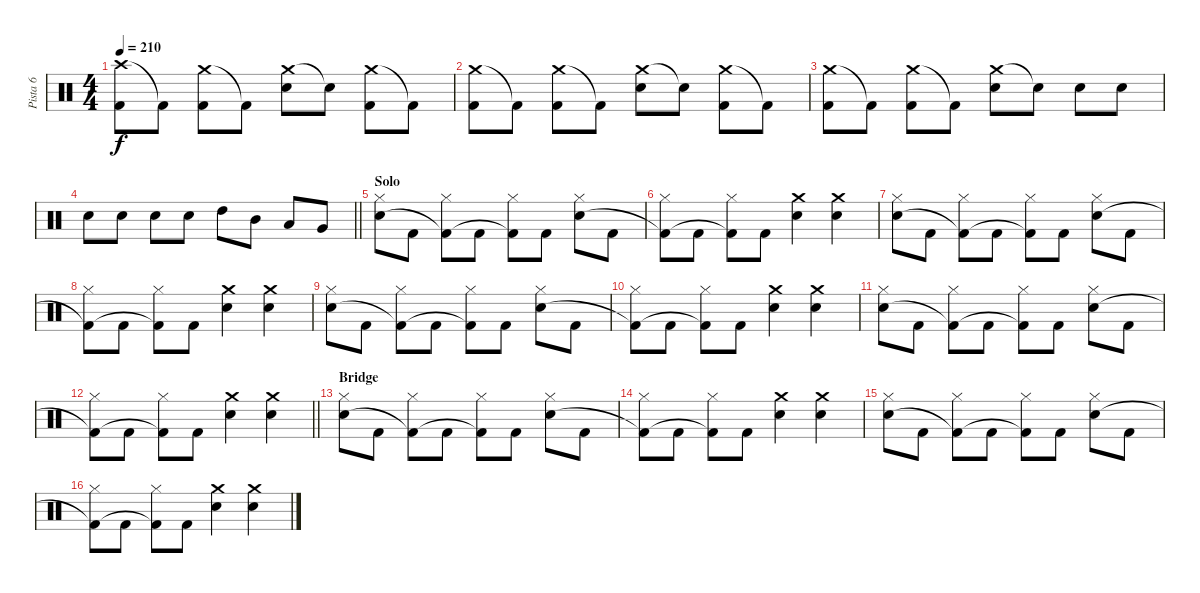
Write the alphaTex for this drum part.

\track ("Pista 6" "Pista 6") {instrument percussion}
\staff {score}
\articulation defaults
\ts (4 4)
\tempo 210
\clef neutral
\ks c
("Crash high (hit)" "Kick (hit) 2").8{dy f} "Kick (hit) 2"{t}.8 ("Crash medium (hit)" "Kick (hit) 2").8 "Kick (hit) 2"{t}.8 ("Crash medium (hit)" "Electric Snare (hit)").8 "Electric Snare (hit)"{t}.8 ("Crash medium (hit)" "Kick (hit) 2").8 "Kick (hit) 2"{t}.8 |
("Crash medium (hit)" "Kick (hit) 2").8 "Kick (hit) 2"{t}.8 ("Crash medium (hit)" "Kick (hit) 2").8 "Kick (hit) 2"{t}.8 ("Crash medium (hit)" "Electric Snare (hit)").8 "Electric Snare (hit)"{t}.8 ("Crash medium (hit)" "Kick (hit) 2").8 "Kick (hit) 2"{t}.8 |
("Crash medium (hit)" "Kick (hit) 2").8 "Kick (hit) 2"{t}.8 ("Crash medium (hit)" "Kick (hit) 2").8 "Kick (hit) 2"{t}.8 ("Crash medium (hit)" "Electric Snare (hit)").8 "Electric Snare (hit)"{t}.8 "Electric Snare (hit)".8 "Electric Snare (hit)".8 |
\barLineRight lightlight "Electric Snare (hit)".8 "Electric Snare (hit)".8 "Electric Snare (hit)".8 "Electric Snare (hit)".8 "High Tom (hit)".8 "Mid Tom (hit)".8 "Low Tom (hit)".8 "Very Low Tom (hit)".8
|
\section ("" "Solo")
("Hi-Hat (closed)" "Electric Snare (hit)").8 "Kick (hit) 2".8 ("Hi-Hat (closed)" "Kick (hit) 2"{t}).8 "Kick (hit) 2".8 ("Hi-Hat (closed)" "Kick (hit) 2"{t}).8 "Kick (hit) 2".8 ("Hi-Hat (closed)" "Electric Snare (hit)").8 "Kick (hit) 2".8 |
("Hi-Hat (closed)" "Kick (hit) 2"{t}).8 "Kick (hit) 2".8 ("Hi-Hat (closed)" "Kick (hit) 2"{t}).8 "Kick (hit) 2".8 ("Crash medium (hit)" "Electric Snare (hit)").4 ("Crash medium (hit)" "Electric Snare (hit)").4 |
("Hi-Hat (closed)" "Electric Snare (hit)").8 "Kick (hit) 2".8 ("Hi-Hat (closed)" "Kick (hit) 2"{t}).8 "Kick (hit) 2".8 ("Hi-Hat (closed)" "Kick (hit) 2"{t}).8 "Kick (hit) 2".8 ("Hi-Hat (closed)" "Electric Snare (hit)").8 "Kick (hit) 2".8 |
("Hi-Hat (closed)" "Kick (hit) 2"{t}).8 "Kick (hit) 2".8 ("Hi-Hat (closed)" "Kick (hit) 2"{t}).8 "Kick (hit) 2".8 ("Crash medium (hit)" "Electric Snare (hit)").4 ("Crash medium (hit)" "Electric Snare (hit)").4 |
("Hi-Hat (closed)" "Electric Snare (hit)").8 "Kick (hit) 2".8 ("Hi-Hat (closed)" "Kick (hit) 2"{t}).8 "Kick (hit) 2".8 ("Hi-Hat (closed)" "Kick (hit) 2"{t}).8 "Kick (hit) 2".8 ("Hi-Hat (closed)" "Electric Snare (hit)").8 "Kick (hit) 2".8 |
("Hi-Hat (closed)" "Kick (hit) 2"{t}).8 "Kick (hit) 2".8 ("Hi-Hat (closed)" "Kick (hit) 2"{t}).8 "Kick (hit) 2".8 ("Crash medium (hit)" "Electric Snare (hit)").4 ("Crash medium (hit)" "Electric Snare (hit)").4 |
("Hi-Hat (closed)" "Electric Snare (hit)").8 "Kick (hit) 2".8 ("Hi-Hat (closed)" "Kick (hit) 2"{t}).8 "Kick (hit) 2".8 ("Hi-Hat (closed)" "Kick (hit) 2"{t}).8 "Kick (hit) 2".8 ("Hi-Hat (closed)" "Electric Snare (hit)").8 "Kick (hit) 2".8 |
\barLineRight lightlight
("Hi-Hat (closed)" "Kick (hit) 2"{t}).8 "Kick (hit) 2".8 ("Hi-Hat (closed)" "Kick (hit) 2"{t}).8 "Kick (hit) 2".8 ("Crash medium (hit)" "Electric Snare (hit)").4 ("Crash medium (hit)" "Electric Snare (hit)").4 |
\section ("" "Bridge")
("Hi-Hat (closed)" "Electric Snare (hit)").8 "Kick (hit) 2".8 ("Hi-Hat (closed)" "Kick (hit) 2"{t}).8 "Kick (hit) 2".8 ("Hi-Hat (closed)" "Kick (hit) 2"{t}).8 "Kick (hit) 2".8 ("Hi-Hat (closed)" "Electric Snare (hit)").8 "Kick (hit) 2".8 |
("Hi-Hat (closed)" "Kick (hit) 2"{t}).8 "Kick (hit) 2".8 ("Hi-Hat (closed)" "Kick (hit) 2"{t}).8 "Kick (hit) 2".8 ("Crash medium (hit)" "Electric Snare (hit)").4 ("Crash medium (hit)" "Electric Snare (hit)").4 |
("Hi-Hat (closed)" "Electric Snare (hit)").8 "Kick (hit) 2".8 ("Hi-Hat (closed)" "Kick (hit) 2"{t}).8 "Kick (hit) 2".8 ("Hi-Hat (closed)" "Kick (hit) 2"{t}).8 "Kick (hit) 2".8 ("Hi-Hat (closed)" "Electric Snare (hit)").8 "Kick (hit) 2".8 |
("Hi-Hat (closed)" "Kick (hit) 2"{t}).8 "Kick (hit) 2".8 ("Hi-Hat (closed)" "Kick (hit) 2"{t}).8 "Kick (hit) 2".8 ("Crash medium (hit)" "Electric Snare (hit)").4 ("Crash medium (hit)" "Electric Snare (hit)").4
